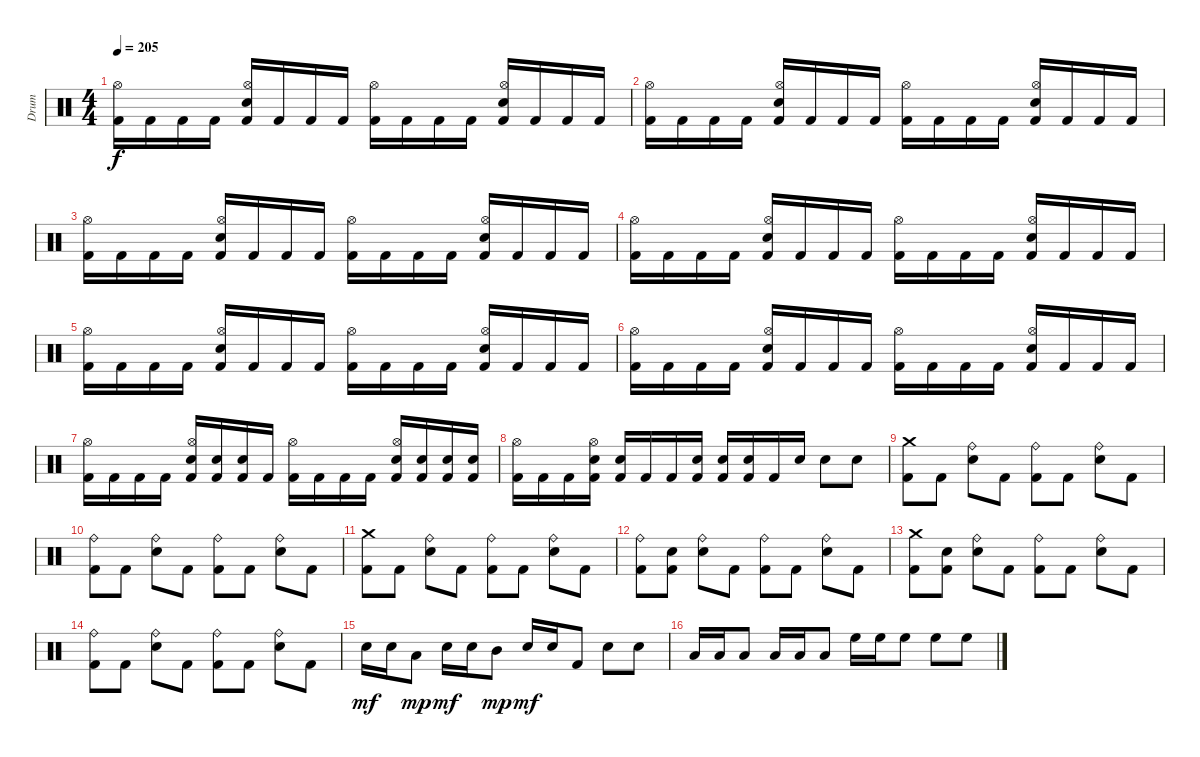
\track ("Drum" "Drum") {instrument percussion}
\staff {score}
\articulation defaults
\ts (4 4)
\tempo 205
\clef neutral
\ks c
("Kick (hit) 2" "Hi-Hat (open)").16{dy f} "Kick (hit) 2".16 "Kick (hit) 2".16 "Kick (hit) 2".16 ("Kick (hit) 2" "Electric Snare (hit)" "Hi-Hat (open)").16 "Kick (hit) 2".16 "Kick (hit) 2".16 "Kick (hit) 2".16 ("Kick (hit) 2" "Hi-Hat (open)").16 "Kick (hit) 2".16 "Kick (hit) 2".16 "Kick (hit) 2".16 ("Kick (hit) 2" "Electric Snare (hit)" "Hi-Hat (open)").16 "Kick (hit) 2".16 "Kick (hit) 2".16 "Kick (hit) 2".16 |
("Kick (hit) 2" "Hi-Hat (open)").16 "Kick (hit) 2".16 "Kick (hit) 2".16 "Kick (hit) 2".16 ("Kick (hit) 2" "Electric Snare (hit)" "Hi-Hat (open)").16 "Kick (hit) 2".16 "Kick (hit) 2".16 "Kick (hit) 2".16 ("Kick (hit) 2" "Hi-Hat (open)").16 "Kick (hit) 2".16 "Kick (hit) 2".16 "Kick (hit) 2".16 ("Kick (hit) 2" "Electric Snare (hit)" "Hi-Hat (open)").16 "Kick (hit) 2".16 "Kick (hit) 2".16 "Kick (hit) 2".16 |
("Kick (hit) 2" "Hi-Hat (open)").16 "Kick (hit) 2".16 "Kick (hit) 2".16 "Kick (hit) 2".16 ("Kick (hit) 2" "Electric Snare (hit)" "Hi-Hat (open)").16 "Kick (hit) 2".16 "Kick (hit) 2".16 "Kick (hit) 2".16 ("Kick (hit) 2" "Hi-Hat (open)").16 "Kick (hit) 2".16 "Kick (hit) 2".16 "Kick (hit) 2".16 ("Kick (hit) 2" "Electric Snare (hit)" "Hi-Hat (open)").16 "Kick (hit) 2".16 "Kick (hit) 2".16 "Kick (hit) 2".16 |
("Kick (hit) 2" "Hi-Hat (open)").16 "Kick (hit) 2".16 "Kick (hit) 2".16 "Kick (hit) 2".16 ("Kick (hit) 2" "Electric Snare (hit)" "Hi-Hat (open)").16 "Kick (hit) 2".16 "Kick (hit) 2".16 "Kick (hit) 2".16 ("Kick (hit) 2" "Hi-Hat (open)").16 "Kick (hit) 2".16 "Kick (hit) 2".16 "Kick (hit) 2".16 ("Kick (hit) 2" "Electric Snare (hit)" "Hi-Hat (open)").16 "Kick (hit) 2".16 "Kick (hit) 2".16 "Kick (hit) 2".16 |
("Kick (hit) 2" "Hi-Hat (open)").16 "Kick (hit) 2".16 "Kick (hit) 2".16 "Kick (hit) 2".16 ("Kick (hit) 2" "Electric Snare (hit)" "Hi-Hat (open)").16 "Kick (hit) 2".16 "Kick (hit) 2".16 "Kick (hit) 2".16 ("Kick (hit) 2" "Hi-Hat (open)").16 "Kick (hit) 2".16 "Kick (hit) 2".16 "Kick (hit) 2".16 ("Kick (hit) 2" "Electric Snare (hit)" "Hi-Hat (open)").16 "Kick (hit) 2".16 "Kick (hit) 2".16 "Kick (hit) 2".16 |
("Kick (hit) 2" "Hi-Hat (open)").16 "Kick (hit) 2".16 "Kick (hit) 2".16 "Kick (hit) 2".16 ("Kick (hit) 2" "Electric Snare (hit)" "Hi-Hat (open)").16 "Kick (hit) 2".16 "Kick (hit) 2".16 "Kick (hit) 2".16 ("Kick (hit) 2" "Hi-Hat (open)").16 "Kick (hit) 2".16 "Kick (hit) 2".16 "Kick (hit) 2".16 ("Kick (hit) 2" "Electric Snare (hit)" "Hi-Hat (open)").16 "Kick (hit) 2".16 "Kick (hit) 2".16 "Kick (hit) 2".16 |
("Kick (hit) 2" "Hi-Hat (open)").16 "Kick (hit) 2".16 "Kick (hit) 2".16 "Kick (hit) 2".16 ("Kick (hit) 2" "Electric Snare (hit)" "Hi-Hat (open)").16 ("Kick (hit) 2" "Electric Snare (hit)").16 ("Kick (hit) 2" "Electric Snare (hit)").16 "Kick (hit) 2".16 ("Kick (hit) 2" "Hi-Hat (open)").16 "Kick (hit) 2".16 "Kick (hit) 2".16 "Kick (hit) 2".16 ("Kick (hit) 2" "Electric Snare (hit)" "Hi-Hat (open)").16 ("Kick (hit) 2" "Electric Snare (hit)").16 ("Kick (hit) 2" "Electric Snare (hit)").16 ("Kick (hit) 2" "Electric Snare (hit)").16 |
("Kick (hit) 2" "Hi-Hat (open)").16 "Kick (hit) 2".16 "Kick (hit) 2".16 ("Kick (hit) 2" "Electric Snare (hit)" "Hi-Hat (open)").16 ("Kick (hit) 2" "Electric Snare (hit)").16 "Kick (hit) 2".16 "Kick (hit) 2".16 ("Kick (hit) 2" "Electric Snare (hit)").16 ("Kick (hit) 2" "Electric Snare (hit)").16 ("Kick (hit) 2" "Electric Snare (hit)").16 "Kick (hit) 2".16 "Electric Snare (hit)".16 "Electric Snare (hit)".8 "Electric Snare (hit)".8 |
("Kick (hit) 2" "Crash medium (hit)").8 "Kick (hit) 2".8 ("Electric Snare (hit)" "Ride (bell)").8 "Kick (hit) 2".8 ("Kick (hit) 2" "Ride (bell)").8 "Kick (hit) 2".8 ("Electric Snare (hit)" "Ride (bell)").8 "Kick (hit) 2".8 |
("Kick (hit) 2" "Ride (bell)").8 "Kick (hit) 2".8 ("Electric Snare (hit)" "Ride (bell)").8 "Kick (hit) 2".8 ("Kick (hit) 2" "Ride (bell)").8 "Kick (hit) 2".8 ("Electric Snare (hit)" "Ride (bell)").8 "Kick (hit) 2".8 |
("Kick (hit) 2" "Crash medium (hit)").8 "Kick (hit) 2".8 ("Electric Snare (hit)" "Ride (bell)").8 "Kick (hit) 2".8 ("Kick (hit) 2" "Ride (bell)").8 "Kick (hit) 2".8 ("Electric Snare (hit)" "Ride (bell)").8 "Kick (hit) 2".8 |
("Kick (hit) 2" "Ride (bell)").8 ("Kick (hit) 2" "Snare (hit)").8 ("Electric Snare (hit)" "Ride (bell)").8 "Kick (hit) 2".8 ("Kick (hit) 2" "Ride (bell)").8 "Kick (hit) 2".8 ("Electric Snare (hit)" "Ride (bell)").8 "Kick (hit) 2".8 |
("Kick (hit) 2" "Crash medium (hit)").8 ("Kick (hit) 2" "Snare (hit)").8 ("Electric Snare (hit)" "Ride (bell)").8 "Kick (hit) 2".8 ("Kick (hit) 2" "Ride (bell)").8 "Kick (hit) 2".8 ("Electric Snare (hit)" "Ride (bell)").8 "Kick (hit) 2".8 |
("Kick (hit) 2" "Ride (bell)").8 "Kick (hit) 2".8 ("Electric Snare (hit)" "Ride (bell)").8 "Kick (hit) 2".8 ("Kick (hit) 2" "Ride (bell)").8 "Kick (hit) 2".8 ("Electric Snare (hit)" "Ride (bell)").8 "Kick (hit) 2".8 |
"Electric Snare (hit)".16{dy mf} "Electric Snare (hit)".16 "Low Tom (hit)".8{dy mp} "Electric Snare (hit)".16{dy mf} "Electric Snare (hit)".16 "Mid Tom (hit)".8{dy mp} "Electric Snare (hit)".16{dy mf} "Electric Snare (hit)".16 "Kick (hit) 2".8 "Electric Snare (hit)".8 "Electric Snare (hit)".8 |
"Low Tom (hit)".16 "Low Tom (hit)".16 "Low Tom (hit)".8 "Low Tom (hit)".16 "Low Tom (hit)".16 "Low Tom (hit)".8 "High Floor Tom (hit)".16 "High Floor Tom (hit)".16 "High Floor Tom (hit)".8 "High Floor Tom (hit)".8 "High Floor Tom (hit)".8
